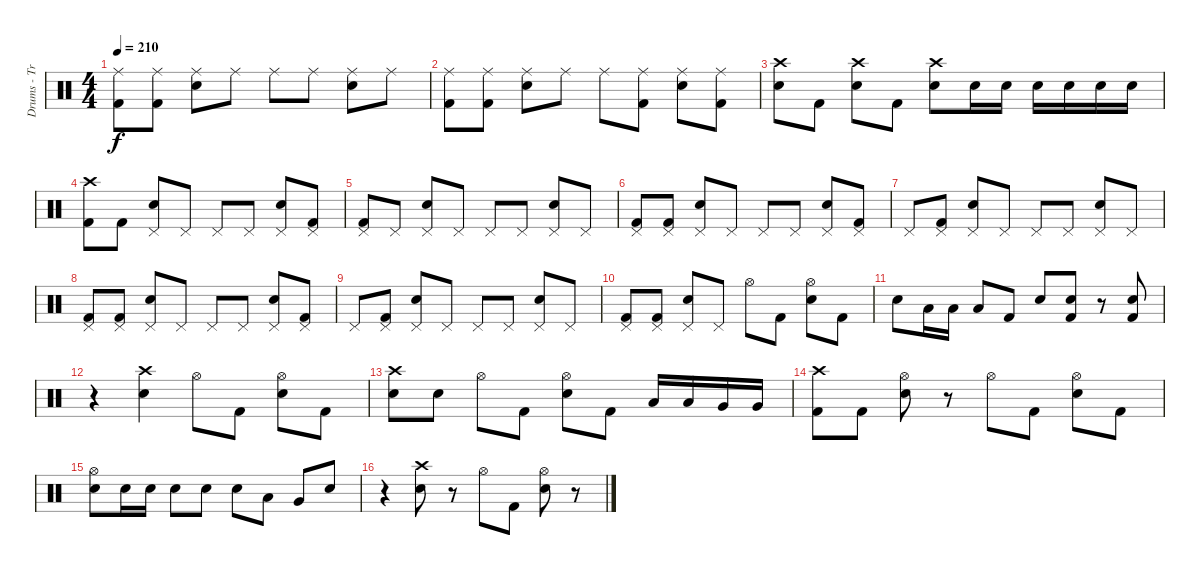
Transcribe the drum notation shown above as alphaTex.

\track ("Drums - Travis Barker" "Drums - Tr") {instrument percussion}
\staff {score}
\articulation defaults
\ts (4 4)
\tempo 210
\clef neutral
\ks c
("Ride (middle)" "Kick (hit) 2").8{dy f} ("Ride (middle)" "Kick (hit) 2").8 ("Ride (middle)" "Electric Snare (hit)").8 "Ride (middle)".8 "Ride (middle)".8 "Ride (middle)".8 ("Ride (middle)" "Electric Snare (hit)").8 "Ride (middle)".8 |
("Ride (middle)" "Kick (hit) 2").8 ("Ride (middle)" "Kick (hit) 2").8 ("Ride (middle)" "Electric Snare (hit)").8 "Ride (middle)".8 "Ride (middle)".8 ("Ride (middle)" "Kick (hit) 2").8 ("Ride (middle)" "Electric Snare (hit)").8 ("Ride (middle)" "Kick (hit) 2").8 |
("Crash high (hit)" "Snare (hit) 2").8 "Kick (hit) 2".8 ("Crash high (hit)" "Electric Snare (hit)").8 "Kick (hit) 2".8 ("Crash high (hit)" "Electric Snare (hit)").8 "Electric Snare (hit)".16 "Electric Snare (hit)".16 "Electric Snare (hit)".16 "Electric Snare (hit)".16 "Electric Snare (hit)".16 "Electric Snare (hit)".16 |
("Crash high (hit)" "Kick (hit) 2").8 "Kick (hit) 2".8 ("Pedal Hi-Hat (hit)" "Electric Snare (hit)").8 "Pedal Hi-Hat (hit)".8 "Pedal Hi-Hat (hit)".8 "Pedal Hi-Hat (hit)".8 ("Pedal Hi-Hat (hit)" "Electric Snare (hit)").8 ("Pedal Hi-Hat (hit)" "Kick (hit) 2").8 |
("Pedal Hi-Hat (hit)" "Kick (hit) 2").8 "Pedal Hi-Hat (hit)".8 ("Pedal Hi-Hat (hit)" "Electric Snare (hit)").8 "Pedal Hi-Hat (hit)".8 "Pedal Hi-Hat (hit)".8 "Pedal Hi-Hat (hit)".8 ("Pedal Hi-Hat (hit)" "Electric Snare (hit)").8 "Pedal Hi-Hat (hit)".8 |
("Pedal Hi-Hat (hit)" "Kick (hit) 2").8 ("Pedal Hi-Hat (hit)" "Kick (hit) 2").8 ("Pedal Hi-Hat (hit)" "Electric Snare (hit)").8 "Pedal Hi-Hat (hit)".8 "Pedal Hi-Hat (hit)".8 "Pedal Hi-Hat (hit)".8 ("Pedal Hi-Hat (hit)" "Electric Snare (hit)").8 ("Pedal Hi-Hat (hit)" "Kick (hit) 2").8 |
"Pedal Hi-Hat (hit)".8 ("Pedal Hi-Hat (hit)" "Kick (hit) 2").8 ("Pedal Hi-Hat (hit)" "Electric Snare (hit)").8 "Pedal Hi-Hat (hit)".8 "Pedal Hi-Hat (hit)".8 "Pedal Hi-Hat (hit)".8 ("Pedal Hi-Hat (hit)" "Electric Snare (hit)").8 "Pedal Hi-Hat (hit)".8 |
("Pedal Hi-Hat (hit)" "Kick (hit) 2").8 ("Pedal Hi-Hat (hit)" "Kick (hit) 2").8 ("Pedal Hi-Hat (hit)" "Electric Snare (hit)").8 "Pedal Hi-Hat (hit)".8 "Pedal Hi-Hat (hit)".8 "Pedal Hi-Hat (hit)".8 ("Pedal Hi-Hat (hit)" "Electric Snare (hit)").8 ("Pedal Hi-Hat (hit)" "Kick (hit) 2").8 |
"Pedal Hi-Hat (hit)".8 ("Pedal Hi-Hat (hit)" "Kick (hit) 2").8 ("Pedal Hi-Hat (hit)" "Electric Snare (hit)").8 "Pedal Hi-Hat (hit)".8 "Pedal Hi-Hat (hit)".8 "Pedal Hi-Hat (hit)".8 ("Pedal Hi-Hat (hit)" "Electric Snare (hit)").8 "Pedal Hi-Hat (hit)".8 |
("Pedal Hi-Hat (hit)" "Kick (hit) 2").8 ("Pedal Hi-Hat (hit)" "Kick (hit) 2").8 ("Pedal Hi-Hat (hit)" "Electric Snare (hit)").8 "Pedal Hi-Hat (hit)".8 "Hi-Hat (open)".8 "Kick (hit) 2".8 ("Hi-Hat (open)" "Electric Snare (hit)").8 "Kick (hit) 2".8 |
"Electric Snare (hit)".8 "Low Tom (hit)".16 "Low Tom (hit)".16 "Low Tom (hit)".8 "Kick (hit) 2".8 "Electric Snare (hit)".8 ("Snare (hit)"{x} "Kick (hit) 2").8 r.8 ("Snare (hit)"{x} "Kick (hit) 2").8 |
r.4 ("Crash high (hit)" "Electric Snare (hit)").4 "Hi-Hat (open)".8 "Kick (hit) 2".8 ("Hi-Hat (open)" "Electric Snare (hit)").8 "Kick (hit) 2".8 |
("Crash high (hit)" "Electric Snare (hit)").8 "Electric Snare (hit)".8 "Hi-Hat (open)".8 "Kick (hit) 2".8 ("Hi-Hat (open)" "Electric Snare (hit)").8 "Kick (hit) 2".8 "Low Tom (hit)".16 "Low Tom (hit)".16 "Very Low Tom (hit)".16 "Very Low Tom (hit)".16 |
("Crash high (hit)" "Kick (hit) 2").8 "Kick (hit) 2".8 ("Hi-Hat (open)" "Electric Snare (hit)").8 r.8 "Hi-Hat (open)".8 "Kick (hit) 2".8 ("Hi-Hat (open)" "Electric Snare (hit)").8 "Kick (hit) 2".8 |
("Hi-Hat (open)" "Electric Snare (hit)").8 "Electric Snare (hit)".16 "Electric Snare (hit)".16 "Electric Snare (hit)".8 "Electric Snare (hit)".8 "Electric Snare (hit)".8 "Low Tom (hit)".8 "Very Low Tom (hit)".8 "Electric Snare (hit)".8 |
r.4 ("Crash high (hit)" "Electric Snare (hit)").8 r.8 "Hi-Hat (open)".8 "Kick (hit) 2".8 ("Hi-Hat (open)" "Electric Snare (hit)").8 r.8
